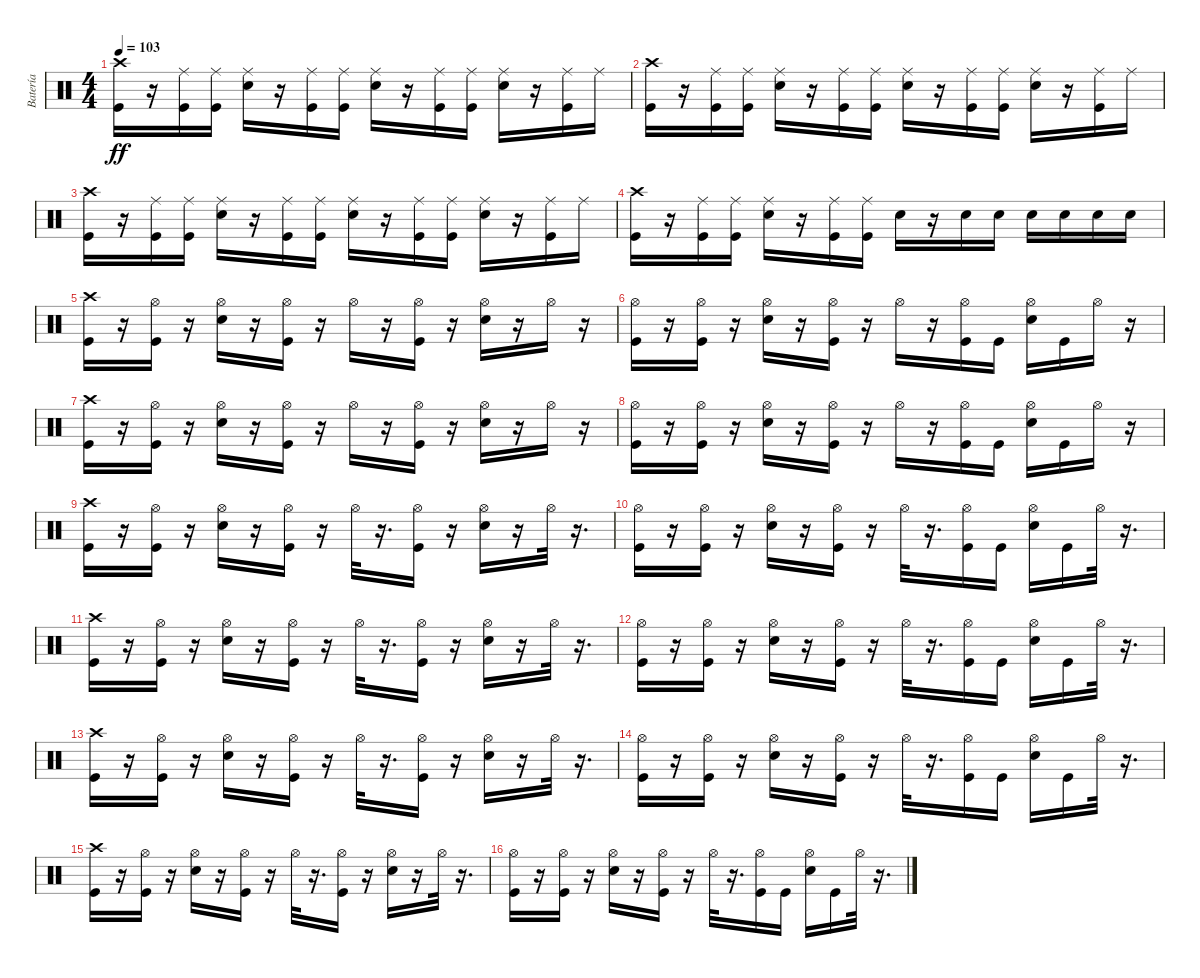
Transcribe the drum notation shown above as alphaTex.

\track ("Batería" "Batería") {instrument percussion}
\staff {score}
\articulation defaults
\ts (4 4)
\tempo 103
\clef neutral
\ks c
("Kick (hit)" "Crash high (hit)").16{dy ff} r.16 ("Kick (hit)" "Ride (middle)").16 ("Kick (hit)" "Ride (middle)").16 ("Ride (middle)" "Snare (hit) 2").16 r.16 ("Kick (hit)" "Ride (middle)").16 ("Kick (hit)" "Ride (middle)").16 ("Ride (middle)" "Snare (hit) 2").16 r.16 ("Kick (hit)" "Ride (middle)").16 ("Kick (hit)" "Ride (middle)").16 ("Ride (middle)" "Snare (hit) 2").16 r.16 ("Kick (hit)" "Ride (middle)").16 "Ride (middle)".16 |
("Crash high (hit)" "Kick (hit)").16 r.16 ("Kick (hit)" "Ride (middle)").16 ("Kick (hit)" "Ride (middle)").16 ("Ride (middle)" "Snare (hit) 2").16 r.16 ("Kick (hit)" "Ride (middle)").16 ("Kick (hit)" "Ride (middle)").16 ("Ride (middle)" "Snare (hit) 2").16 r.16 ("Kick (hit)" "Ride (middle)").16 ("Kick (hit)" "Ride (middle)").16 ("Ride (middle)" "Snare (hit) 2").16 r.16 ("Kick (hit)" "Ride (middle)").16 "Ride (middle)".16 |
("Crash high (hit)" "Kick (hit)").16 r.16 ("Kick (hit)" "Ride (middle)").16 ("Kick (hit)" "Ride (middle)").16 ("Ride (middle)" "Snare (hit) 2").16 r.16 ("Kick (hit)" "Ride (middle)").16 ("Kick (hit)" "Ride (middle)").16 ("Ride (middle)" "Snare (hit) 2").16 r.16 ("Kick (hit)" "Ride (middle)").16 ("Kick (hit)" "Ride (middle)").16 ("Ride (middle)" "Snare (hit) 2").16 r.16 ("Kick (hit)" "Ride (middle)").16 "Ride (middle)".16 |
("Crash high (hit)" "Kick (hit)").16 r.16 ("Kick (hit)" "Ride (middle)").16 ("Kick (hit)" "Ride (middle)").16 ("Ride (middle)" "Snare (hit) 2").16 r.16 ("Kick (hit)" "Ride (middle)").16 ("Kick (hit)" "Ride (middle)").16 "Snare (hit) 2".16 r.16 "Snare (hit) 2".16 "Snare (hit) 2".16 "Snare (hit) 2".16 "Snare (hit) 2".16 "Snare (hit) 2".16 "Snare (hit) 2".16 |
("Crash high (hit)" "Kick (hit)").16 r.16 ("Kick (hit)" "Hi-Hat (open)").16 r.16 ("Snare (hit) 2" "Hi-Hat (open)").16 r.16 ("Kick (hit)" "Hi-Hat (open)").16 r.16 "Hi-Hat (open)".16 r.16 ("Kick (hit)" "Hi-Hat (open)").16 r.16 ("Hi-Hat (open)" "Snare (hit) 2").16 r.16 "Hi-Hat (open)".16 r.16 |
("Kick (hit)" "Hi-Hat (open)").16 r.16 ("Kick (hit)" "Hi-Hat (open)").16 r.16 ("Snare (hit) 2" "Hi-Hat (open)").16 r.16 ("Kick (hit)" "Hi-Hat (open)").16 r.16 "Hi-Hat (open)".16 r.16 ("Kick (hit)" "Hi-Hat (open)").16 "Kick (hit)".16 ("Hi-Hat (open)" "Snare (hit) 2").16 "Kick (hit)".16 "Hi-Hat (open)".16 r.16 |
("Kick (hit)" "Crash high (hit)").16 r.16 ("Kick (hit)" "Hi-Hat (open)").16 r.16 ("Snare (hit) 2" "Hi-Hat (open)").16 r.16 ("Kick (hit)" "Hi-Hat (open)").16 r.16 "Hi-Hat (open)".16 r.16 ("Kick (hit)" "Hi-Hat (open)").16 r.16 ("Hi-Hat (open)" "Snare (hit) 2").16 r.16 "Hi-Hat (open)".16 r.16 |
("Kick (hit)" "Hi-Hat (open)").16 r.16 ("Kick (hit)" "Hi-Hat (open)").16 r.16 ("Snare (hit) 2" "Hi-Hat (open)").16 r.16 ("Kick (hit)" "Hi-Hat (open)").16 r.16 "Hi-Hat (open)".16 r.16 ("Kick (hit)" "Hi-Hat (open)").16 "Kick (hit)".16 ("Hi-Hat (open)" "Snare (hit) 2").16 "Kick (hit)".16 "Hi-Hat (open)".16 r.16 |
("Crash high (hit)" "Kick (hit)").16 r.16 ("Kick (hit)" "Hi-Hat (open)").16 r.16 ("Snare (hit) 2" "Hi-Hat (open)").16 r.16 ("Kick (hit)" "Hi-Hat (open)").16 r.16 "Hi-Hat (open)".32 r.16{d} ("Kick (hit)" "Hi-Hat (open)").16 r.16 ("Snare (hit) 2" "Hi-Hat (open)").16 r.16 "Hi-Hat (open)".32 r.16{d} |
("Kick (hit)" "Hi-Hat (open)").16 r.16 ("Kick (hit)" "Hi-Hat (open)").16 r.16 ("Snare (hit) 2" "Hi-Hat (open)").16 r.16 ("Kick (hit)" "Hi-Hat (open)").16 r.16 "Hi-Hat (open)".32 r.16{d} ("Kick (hit)" "Hi-Hat (open)").16 "Kick (hit)".16 ("Snare (hit) 2" "Hi-Hat (open)").16 "Kick (hit)".16 "Hi-Hat (open)".32 r.16{d} |
("Kick (hit)" "Crash high (hit)").16 r.16 ("Kick (hit)" "Hi-Hat (open)").16 r.16 ("Snare (hit) 2" "Hi-Hat (open)").16 r.16 ("Kick (hit)" "Hi-Hat (open)").16 r.16 "Hi-Hat (open)".32 r.16{d} ("Kick (hit)" "Hi-Hat (open)").16 r.16 ("Snare (hit) 2" "Hi-Hat (open)").16 r.16 "Hi-Hat (open)".32 r.16{d} |
("Kick (hit)" "Hi-Hat (open)").16 r.16 ("Kick (hit)" "Hi-Hat (open)").16 r.16 ("Snare (hit) 2" "Hi-Hat (open)").16 r.16 ("Kick (hit)" "Hi-Hat (open)").16 r.16 "Hi-Hat (open)".32 r.16{d} ("Kick (hit)" "Hi-Hat (open)").16 "Kick (hit)".16 ("Snare (hit) 2" "Hi-Hat (open)").16 "Kick (hit)".16 "Hi-Hat (open)".32 r.16{d} |
("Crash high (hit)" "Kick (hit)").16 r.16 ("Kick (hit)" "Hi-Hat (open)").16 r.16 ("Snare (hit) 2" "Hi-Hat (open)").16 r.16 ("Kick (hit)" "Hi-Hat (open)").16 r.16 "Hi-Hat (open)".32 r.16{d} ("Kick (hit)" "Hi-Hat (open)").16 r.16 ("Snare (hit) 2" "Hi-Hat (open)").16 r.16 "Hi-Hat (open)".32 r.16{d} |
("Kick (hit)" "Hi-Hat (open)").16 r.16 ("Kick (hit)" "Hi-Hat (open)").16 r.16 ("Snare (hit) 2" "Hi-Hat (open)").16 r.16 ("Kick (hit)" "Hi-Hat (open)").16 r.16 "Hi-Hat (open)".32 r.16{d} ("Kick (hit)" "Hi-Hat (open)").16 "Kick (hit)".16 ("Snare (hit) 2" "Hi-Hat (open)").16 "Kick (hit)".16 "Hi-Hat (open)".32 r.16{d} |
("Kick (hit)" "Crash high (hit)").16 r.16 ("Kick (hit)" "Hi-Hat (open)").16 r.16 ("Snare (hit) 2" "Hi-Hat (open)").16 r.16 ("Kick (hit)" "Hi-Hat (open)").16 r.16 "Hi-Hat (open)".32 r.16{d} ("Kick (hit)" "Hi-Hat (open)").16 r.16 ("Snare (hit) 2" "Hi-Hat (open)").16 r.16 "Hi-Hat (open)".32 r.16{d} |
("Kick (hit)" "Hi-Hat (open)").16 r.16 ("Kick (hit)" "Hi-Hat (open)").16 r.16 ("Snare (hit) 2" "Hi-Hat (open)").16 r.16 ("Kick (hit)" "Hi-Hat (open)").16 r.16 "Hi-Hat (open)".32 r.16{d} ("Kick (hit)" "Hi-Hat (open)").16 "Kick (hit)".16 ("Snare (hit) 2" "Hi-Hat (open)").16 "Kick (hit)".16 "Hi-Hat (open)".32 r.16{d}
